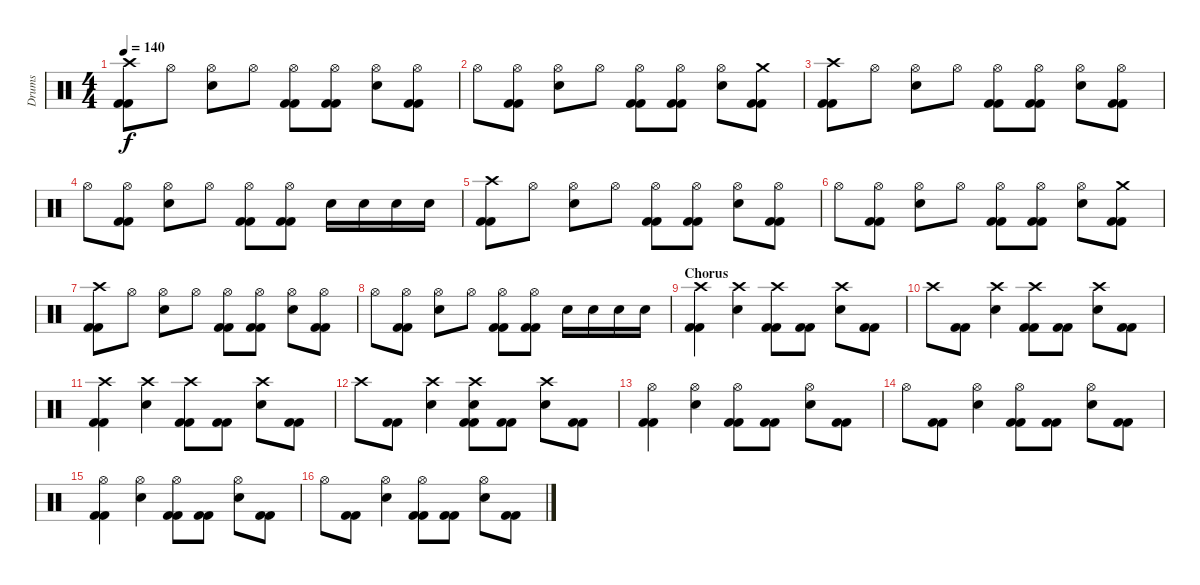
\track ("Drums" "Drums") {instrument percussion}
\staff {score}
\articulation defaults
\ts (4 4)
\tempo 140
\clef neutral
\ks c
("Crash high (hit)" "Kick (hit) 2" "Kick (hit) 2").8{dy f} "Hi-Hat (open)".8 ("Hi-Hat (open)" "Electric Snare (hit)").8 "Hi-Hat (open)".8 ("Hi-Hat (open)" "Kick (hit) 2" "Kick (hit) 2").8 ("Hi-Hat (open)" "Kick (hit) 2" "Kick (hit) 2").8 ("Hi-Hat (open)" "Electric Snare (hit)").8 ("Hi-Hat (open)" "Kick (hit) 2" "Kick (hit) 2").8 |
"Hi-Hat (open)".8 ("Hi-Hat (open)" "Kick (hit) 2" "Kick (hit) 2").8 ("Hi-Hat (open)" "Electric Snare (hit)").8 "Hi-Hat (open)".8 ("Hi-Hat (open)" "Kick (hit) 2" "Kick (hit) 2").8 ("Hi-Hat (open)" "Kick (hit) 2" "Kick (hit) 2").8 ("Hi-Hat (open)" "Electric Snare (hit)").8 ("Crash medium (hit)" "Kick (hit) 2" "Kick (hit) 2").8 |
("Crash high (hit)" "Kick (hit) 2" "Kick (hit) 2").8 "Hi-Hat (open)".8 ("Hi-Hat (open)" "Electric Snare (hit)").8 "Hi-Hat (open)".8 ("Hi-Hat (open)" "Kick (hit) 2" "Kick (hit) 2").8 ("Hi-Hat (open)" "Kick (hit) 2" "Kick (hit) 2").8 ("Hi-Hat (open)" "Electric Snare (hit)").8 ("Hi-Hat (open)" "Kick (hit) 2" "Kick (hit) 2").8 |
"Hi-Hat (open)".8 ("Hi-Hat (open)" "Kick (hit) 2" "Kick (hit) 2").8 ("Hi-Hat (open)" "Electric Snare (hit)").8 "Hi-Hat (open)".8 ("Hi-Hat (open)" "Kick (hit) 2" "Kick (hit) 2").8 ("Hi-Hat (open)" "Kick (hit) 2" "Kick (hit) 2").8 "Electric Snare (hit)".16 "Electric Snare (hit)".16 "Electric Snare (hit)".16 "Electric Snare (hit)".16 |
("Crash high (hit)" "Kick (hit) 2" "Kick (hit) 2").8 "Hi-Hat (open)".8 ("Hi-Hat (open)" "Electric Snare (hit)").8 "Hi-Hat (open)".8 ("Hi-Hat (open)" "Kick (hit) 2" "Kick (hit) 2").8 ("Hi-Hat (open)" "Kick (hit) 2" "Kick (hit) 2").8 ("Hi-Hat (open)" "Electric Snare (hit)").8 ("Hi-Hat (open)" "Kick (hit) 2" "Kick (hit) 2").8 |
"Hi-Hat (open)".8 ("Hi-Hat (open)" "Kick (hit) 2" "Kick (hit) 2").8 ("Hi-Hat (open)" "Electric Snare (hit)").8 "Hi-Hat (open)".8 ("Hi-Hat (open)" "Kick (hit) 2" "Kick (hit) 2").8 ("Hi-Hat (open)" "Kick (hit) 2" "Kick (hit) 2").8 ("Hi-Hat (open)" "Electric Snare (hit)").8 ("Crash medium (hit)" "Kick (hit) 2" "Kick (hit) 2").8 |
("Crash high (hit)" "Kick (hit) 2" "Kick (hit) 2").8 "Hi-Hat (open)".8 ("Hi-Hat (open)" "Electric Snare (hit)").8 "Hi-Hat (open)".8 ("Hi-Hat (open)" "Kick (hit) 2" "Kick (hit) 2").8 ("Hi-Hat (open)" "Kick (hit) 2" "Kick (hit) 2").8 ("Hi-Hat (open)" "Electric Snare (hit)").8 ("Hi-Hat (open)" "Kick (hit) 2" "Kick (hit) 2").8 |
"Hi-Hat (open)".8 ("Hi-Hat (open)" "Kick (hit) 2" "Kick (hit) 2").8 ("Hi-Hat (open)" "Electric Snare (hit)").8 "Hi-Hat (open)".8 ("Hi-Hat (open)" "Kick (hit) 2" "Kick (hit) 2").8 ("Hi-Hat (open)" "Kick (hit) 2" "Kick (hit) 2").8 "Electric Snare (hit)".16 "Electric Snare (hit)".16 "Electric Snare (hit)".16 "Electric Snare (hit)".16 |
\section ("" "Chorus")
("Crash high (hit)" "Kick (hit) 2" "Kick (hit) 2").4 ("Crash high (hit)" "Electric Snare (hit)").4 ("Crash high (hit)" "Kick (hit) 2" "Kick (hit) 2").8 ("Kick (hit) 2" "Kick (hit) 2").8 ("Crash high (hit)" "Electric Snare (hit)").8 ("Kick (hit) 2" "Kick (hit) 2").8 |
"Crash high (hit)".8 ("Kick (hit) 2" "Kick (hit) 2").8 ("Crash high (hit)" "Electric Snare (hit)").4 ("Crash high (hit)" "Kick (hit) 2" "Kick (hit) 2").8 ("Kick (hit) 2" "Kick (hit) 2").8 ("Crash high (hit)" "Electric Snare (hit)").8 ("Kick (hit) 2" "Kick (hit) 2").8 |
("Crash high (hit)" "Kick (hit) 2" "Kick (hit) 2").4 ("Crash high (hit)" "Electric Snare (hit)").4 ("Crash high (hit)" "Kick (hit) 2" "Kick (hit) 2").8 ("Kick (hit) 2" "Kick (hit) 2").8 ("Crash high (hit)" "Electric Snare (hit)").8 ("Kick (hit) 2" "Kick (hit) 2").8 |
"Crash high (hit)".8 ("Kick (hit) 2" "Kick (hit) 2").8 ("Crash high (hit)" "Electric Snare (hit)").4 ("Crash high (hit)" "Kick (hit) 2" "Electric Snare (hit)" "Kick (hit) 2").8 ("Kick (hit) 2" "Kick (hit) 2").8 ("Crash high (hit)" "Electric Snare (hit)").8 ("Kick (hit) 2" "Kick (hit) 2").8 |
("Hi-Hat (open)" "Kick (hit) 2" "Kick (hit) 2").4 ("Hi-Hat (open)" "Electric Snare (hit)").4 ("Hi-Hat (open)" "Kick (hit) 2" "Kick (hit) 2").8 ("Kick (hit) 2" "Kick (hit) 2").8 ("Hi-Hat (open)" "Electric Snare (hit)").8 ("Kick (hit) 2" "Kick (hit) 2").8 |
"Hi-Hat (open)".8 ("Kick (hit) 2" "Kick (hit) 2").8 ("Hi-Hat (open)" "Electric Snare (hit)").4 ("Hi-Hat (open)" "Kick (hit) 2" "Kick (hit) 2").8 ("Kick (hit) 2" "Kick (hit) 2").8 ("Hi-Hat (open)" "Electric Snare (hit)").8 ("Kick (hit) 2" "Kick (hit) 2").8 |
("Hi-Hat (open)" "Kick (hit) 2" "Kick (hit) 2").4 ("Hi-Hat (open)" "Electric Snare (hit)").4 ("Hi-Hat (open)" "Kick (hit) 2" "Kick (hit) 2").8 ("Kick (hit) 2" "Kick (hit) 2").8 ("Hi-Hat (open)" "Electric Snare (hit)").8 ("Kick (hit) 2" "Kick (hit) 2").8 |
"Hi-Hat (open)".8 ("Kick (hit) 2" "Kick (hit) 2").8 ("Hi-Hat (open)" "Electric Snare (hit)").4 ("Hi-Hat (open)" "Kick (hit) 2" "Kick (hit) 2").8 ("Kick (hit) 2" "Kick (hit) 2").8 ("Hi-Hat (open)" "Electric Snare (hit)").8 ("Kick (hit) 2" "Kick (hit) 2").8
